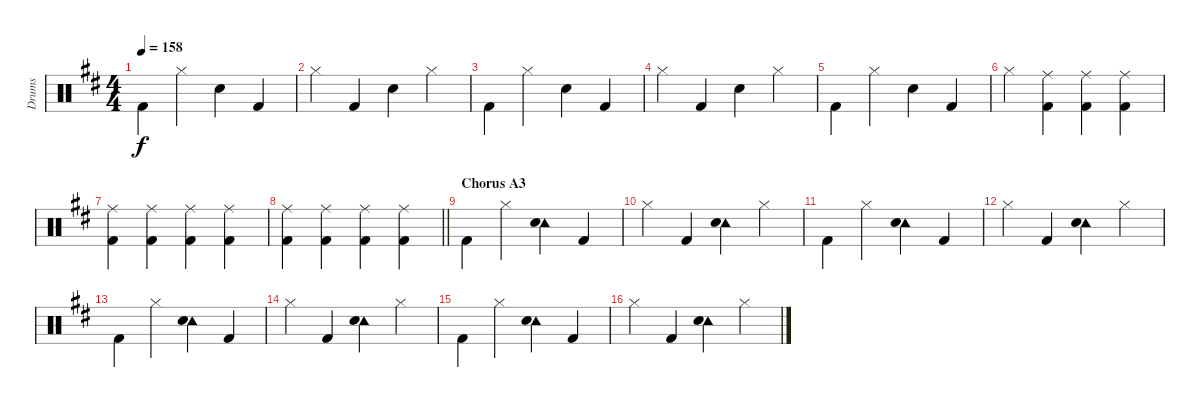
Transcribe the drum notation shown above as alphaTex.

\track ("Drums" "Drums") {instrument percussion}
\staff {score}
\articulation defaults
\ts (4 4)
\tempo 158
\clef neutral
\ks d "Kick (hit) 2".4{dy f beam merge} "Hi-Hat (closed)".4 "Snare (hit) 2".4 "Kick (hit) 2".4
|
"Hi-Hat (closed)".4 "Kick (hit) 2".4 "Snare (hit) 2".4 "Hi-Hat (closed)".4 |
"Kick (hit) 2".4{beam merge} "Hi-Hat (closed)".4 "Snare (hit) 2".4 "Kick (hit) 2".4 |
"Hi-Hat (closed)".4 "Kick (hit) 2".4 "Snare (hit) 2".4 "Hi-Hat (closed)".4 |
"Kick (hit) 2".4{beam merge} "Hi-Hat (closed)".4 "Snare (hit) 2".4 "Kick (hit) 2".4 |
"Hi-Hat (closed)".4{volume 7} ("Ride (middle)" "Kick (hit) 2").4{volume 16 beam merge} ("Ride (middle)" "Kick (hit) 2").4 ("Ride (middle)" "Kick (hit) 2").4 |
("Ride (middle)" "Kick (hit) 2").4 ("Ride (middle)" "Kick (hit) 2").4{beam merge} ("Ride (middle)" "Kick (hit) 2").4{beam merge} ("Ride (middle)" "Kick (hit) 2").4 |
\barLineRight lightlight
("Ride (middle)" "Kick (hit) 2").4{beam merge} ("Ride (middle)" "Kick (hit) 2").4{beam merge} ("Ride (middle)" "Kick (hit) 2").4 ("Ride (middle)" "Kick (hit) 2").4 |
\section ("" "Chorus A3")
"Kick (hit) 2".4{beam merge} "Hi-Hat (closed)".4 ("Tambourine (hit)" "Snare (hit) 2").4 "Kick (hit) 2".4 |
"Hi-Hat (closed)".4 "Kick (hit) 2".4 ("Tambourine (hit)" "Snare (hit) 2").4 "Hi-Hat (closed)".4 |
"Kick (hit) 2".4{beam merge} "Hi-Hat (closed)".4 ("Tambourine (hit)" "Snare (hit) 2").4 "Kick (hit) 2".4 |
"Hi-Hat (closed)".4 "Kick (hit) 2".4 ("Tambourine (hit)" "Snare (hit) 2").4 "Hi-Hat (closed)".4 |
"Kick (hit) 2".4{beam merge} "Hi-Hat (closed)".4 ("Tambourine (hit)" "Snare (hit) 2").4 "Kick (hit) 2".4 |
"Hi-Hat (closed)".4 "Kick (hit) 2".4 ("Tambourine (hit)" "Snare (hit) 2").4 "Hi-Hat (closed)".4 |
"Kick (hit) 2".4{beam merge} "Hi-Hat (closed)".4 ("Tambourine (hit)" "Snare (hit) 2").4 "Kick (hit) 2".4 |
"Hi-Hat (closed)".4 "Kick (hit) 2".4 ("Tambourine (hit)" "Snare (hit) 2").4 "Hi-Hat (closed)".4
